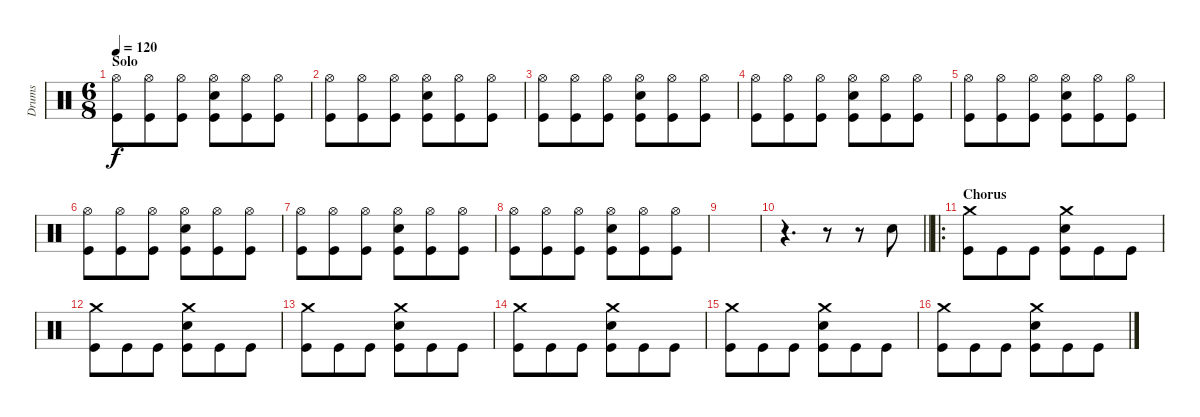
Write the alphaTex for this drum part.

\track ("Drums" "Drums") {instrument percussion}
\staff {score}
\articulation defaults
\ts (6 8)
\section ("" "Solo")
\tempo 120
\clef neutral
\ks c
("Hi-Hat (open)" "Kick (hit)").8{dy f} ("Hi-Hat (open)" "Kick (hit)").8 ("Hi-Hat (open)" "Kick (hit)").8 ("Hi-Hat (open)" "Snare (hit) 2" "Kick (hit)").8 ("Hi-Hat (open)" "Kick (hit)").8 ("Hi-Hat (open)" "Kick (hit)").8 |
("Hi-Hat (open)" "Kick (hit)").8 ("Hi-Hat (open)" "Kick (hit)").8 ("Hi-Hat (open)" "Kick (hit)").8 ("Hi-Hat (open)" "Snare (hit) 2" "Kick (hit)").8 ("Hi-Hat (open)" "Kick (hit)").8 ("Hi-Hat (open)" "Kick (hit)").8 |
("Hi-Hat (open)" "Kick (hit)").8 ("Hi-Hat (open)" "Kick (hit)").8 ("Hi-Hat (open)" "Kick (hit)").8 ("Hi-Hat (open)" "Snare (hit) 2" "Kick (hit)").8 ("Hi-Hat (open)" "Kick (hit)").8 ("Hi-Hat (open)" "Kick (hit)").8 |
("Hi-Hat (open)" "Kick (hit)").8 ("Hi-Hat (open)" "Kick (hit)").8 ("Hi-Hat (open)" "Kick (hit)").8 ("Hi-Hat (open)" "Snare (hit) 2" "Kick (hit)").8 ("Hi-Hat (open)" "Kick (hit)").8 ("Hi-Hat (open)" "Kick (hit)").8 |
("Hi-Hat (open)" "Kick (hit)").8 ("Hi-Hat (open)" "Kick (hit)").8 ("Hi-Hat (open)" "Kick (hit)").8 ("Hi-Hat (open)" "Snare (hit) 2" "Kick (hit)").8 ("Hi-Hat (open)" "Kick (hit)").8 ("Hi-Hat (open)" "Kick (hit)").8 |
("Hi-Hat (open)" "Kick (hit)").8 ("Hi-Hat (open)" "Kick (hit)").8 ("Hi-Hat (open)" "Kick (hit)").8 ("Hi-Hat (open)" "Snare (hit) 2" "Kick (hit)").8 ("Hi-Hat (open)" "Kick (hit)").8 ("Hi-Hat (open)" "Kick (hit)").8 |
("Hi-Hat (open)" "Kick (hit)").8 ("Hi-Hat (open)" "Kick (hit)").8 ("Hi-Hat (open)" "Kick (hit)").8 ("Hi-Hat (open)" "Snare (hit) 2" "Kick (hit)").8 ("Hi-Hat (open)" "Kick (hit)").8 ("Hi-Hat (open)" "Kick (hit)").8 |
("Hi-Hat (open)" "Kick (hit)").8 ("Hi-Hat (open)" "Kick (hit)").8 ("Hi-Hat (open)" "Kick (hit)").8 ("Hi-Hat (open)" "Snare (hit) 2" "Kick (hit)").8 ("Hi-Hat (open)" "Kick (hit)").8 ("Hi-Hat (open)" "Kick (hit)").8 |
|
\barLineRight lightlight
r.4{d} r.8 r.8 "Snare (hit) 2".8 |
\ro
\section ("" "Chorus")
("Crash medium (hit)" "Kick (hit)").8 "Kick (hit)".8 "Kick (hit)".8 ("Crash medium (hit)" "Snare (hit) 2" "Kick (hit)").8 "Kick (hit)".8 "Kick (hit)".8 |
("Crash medium (hit)" "Kick (hit)").8 "Kick (hit)".8 "Kick (hit)".8 ("Crash medium (hit)" "Snare (hit) 2" "Kick (hit)").8 "Kick (hit)".8 "Kick (hit)".8 |
("Crash medium (hit)" "Kick (hit)").8 "Kick (hit)".8 "Kick (hit)".8 ("Crash medium (hit)" "Snare (hit) 2" "Kick (hit)").8 "Kick (hit)".8 "Kick (hit)".8 |
("Crash medium (hit)" "Kick (hit)").8 "Kick (hit)".8 "Kick (hit)".8 ("Crash medium (hit)" "Snare (hit) 2" "Kick (hit)").8 "Kick (hit)".8 "Kick (hit)".8 |
("Crash medium (hit)" "Kick (hit)").8 "Kick (hit)".8 "Kick (hit)".8 ("Crash medium (hit)" "Snare (hit) 2" "Kick (hit)").8 "Kick (hit)".8 "Kick (hit)".8 |
("Crash medium (hit)" "Kick (hit)").8 "Kick (hit)".8 "Kick (hit)".8 ("Crash medium (hit)" "Snare (hit) 2" "Kick (hit)").8 "Kick (hit)".8 "Kick (hit)".8
